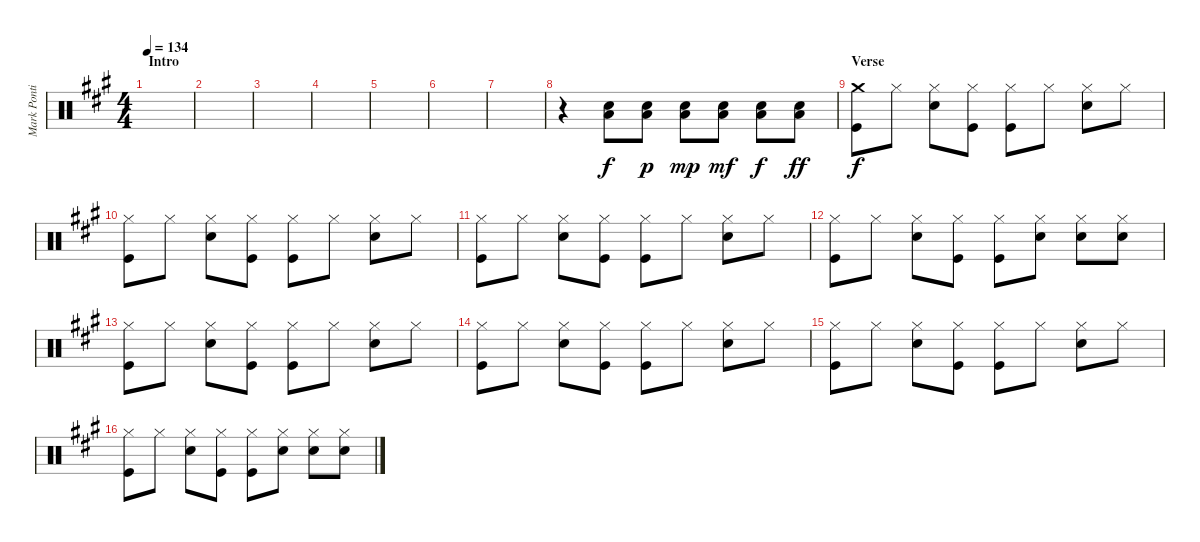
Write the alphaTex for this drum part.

\track ("Mark Pontius" "Mark Ponti") {instrument percussion}
\staff {score}
\articulation defaults
\ts (4 4)
\section ("" "Intro")
\tempo 134
\clef neutral
\ks a
|
|
|
|
|
|
|
r.4 ("Low Tom (hit)" "Snare (hit) 2").8 ("Snare (hit) 2" "Low Tom (hit)").8{dy p} ("Snare (hit) 2" "Low Tom (hit)").8{dy mp} ("Snare (hit) 2" "Low Tom (hit)").8{dy mf} ("Snare (hit) 2" "Low Tom (hit)").8{dy f} ("Snare (hit) 2" "Low Tom (hit)").8{dy ff} |
\section ("" "Verse")
("Crash medium (hit)" "Kick (hit)").8{dy f} "Hi-Hat (closed)".8 ("Hi-Hat (closed)" "Snare (hit) 2").8 ("Hi-Hat (closed)" "Kick (hit)").8 ("Hi-Hat (closed)" "Kick (hit)").8 "Hi-Hat (closed)".8 ("Hi-Hat (closed)" "Snare (hit) 2").8 "Hi-Hat (closed)".8 |
("Hi-Hat (closed)" "Kick (hit)").8 "Hi-Hat (closed)".8 ("Hi-Hat (closed)" "Snare (hit) 2").8 ("Hi-Hat (closed)" "Kick (hit)").8 ("Hi-Hat (closed)" "Kick (hit)").8 "Hi-Hat (closed)".8 ("Hi-Hat (closed)" "Snare (hit) 2").8 "Hi-Hat (closed)".8 |
("Hi-Hat (closed)" "Kick (hit)").8 "Hi-Hat (closed)".8 ("Hi-Hat (closed)" "Snare (hit) 2").8 ("Hi-Hat (closed)" "Kick (hit)").8 ("Hi-Hat (closed)" "Kick (hit)").8 "Hi-Hat (closed)".8 ("Hi-Hat (closed)" "Snare (hit) 2").8 "Hi-Hat (closed)".8 |
("Hi-Hat (closed)" "Kick (hit)").8 "Hi-Hat (closed)".8 ("Hi-Hat (closed)" "Snare (hit) 2").8 ("Hi-Hat (closed)" "Kick (hit)").8 ("Hi-Hat (closed)" "Kick (hit)").8 ("Hi-Hat (closed)" "Snare (hit) 2").8 ("Hi-Hat (closed)" "Snare (hit) 2").8 ("Hi-Hat (closed)" "Snare (hit) 2").8 |
("Kick (hit)" "Hi-Hat (closed)").8 "Hi-Hat (closed)".8 ("Hi-Hat (closed)" "Snare (hit) 2").8 ("Hi-Hat (closed)" "Kick (hit)").8 ("Hi-Hat (closed)" "Kick (hit)").8 "Hi-Hat (closed)".8 ("Hi-Hat (closed)" "Snare (hit) 2").8 "Hi-Hat (closed)".8 |
("Hi-Hat (closed)" "Kick (hit)").8 "Hi-Hat (closed)".8 ("Hi-Hat (closed)" "Snare (hit) 2").8 ("Hi-Hat (closed)" "Kick (hit)").8 ("Hi-Hat (closed)" "Kick (hit)").8 "Hi-Hat (closed)".8 ("Hi-Hat (closed)" "Snare (hit) 2").8 "Hi-Hat (closed)".8 |
("Hi-Hat (closed)" "Kick (hit)").8 "Hi-Hat (closed)".8 ("Hi-Hat (closed)" "Snare (hit) 2").8 ("Hi-Hat (closed)" "Kick (hit)").8 ("Hi-Hat (closed)" "Kick (hit)").8 "Hi-Hat (closed)".8 ("Hi-Hat (closed)" "Snare (hit) 2").8 "Hi-Hat (closed)".8 |
("Hi-Hat (closed)" "Kick (hit)").8 "Hi-Hat (closed)".8 ("Hi-Hat (closed)" "Snare (hit) 2").8 ("Hi-Hat (closed)" "Kick (hit)").8 ("Hi-Hat (closed)" "Kick (hit)").8 ("Hi-Hat (closed)" "Snare (hit) 2").8 ("Hi-Hat (closed)" "Snare (hit) 2").8 ("Hi-Hat (closed)" "Snare (hit) 2").8
